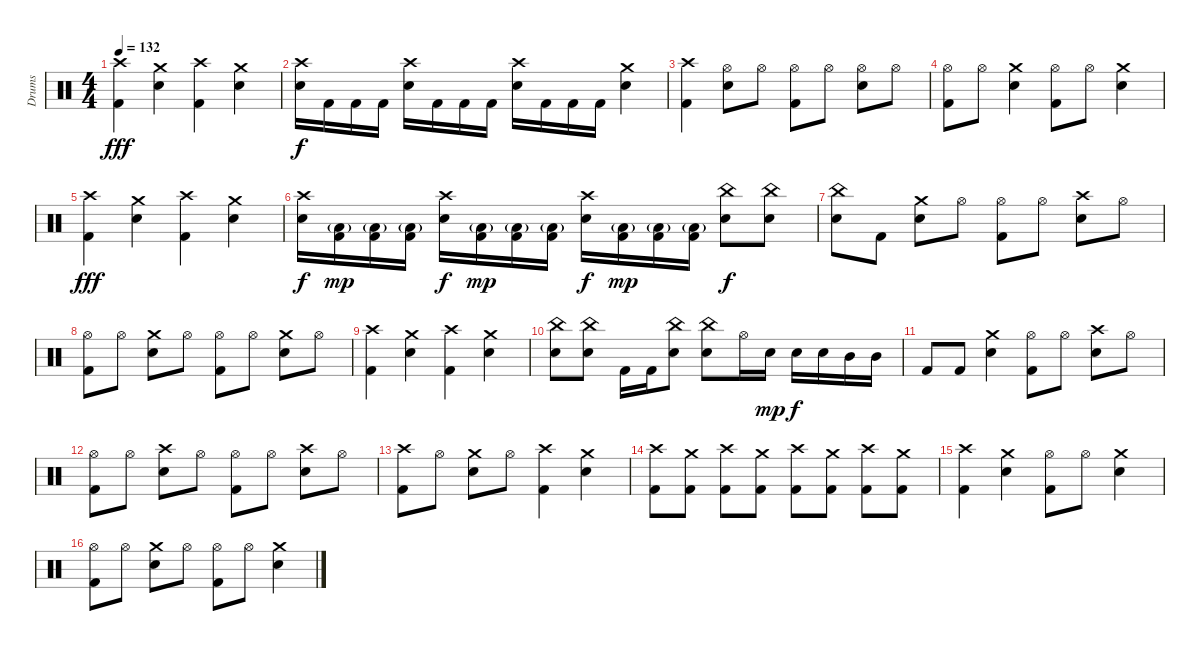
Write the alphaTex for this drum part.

\track ("Drums" "Drums") {instrument percussion}
\staff {score}
\articulation defaults
\ts (4 4)
\tempo 132
\clef neutral
\ks c
("Crash high (hit)" "Kick (hit) 2").4{dy fff} ("Crash medium (hit)" "Snare (hit) 2").4 ("Crash high (hit)" "Kick (hit) 2").4 ("Crash medium (hit)" "Snare (hit) 2").4 |
("Crash high (hit)" "Snare (hit) 2").16{dy f} "Kick (hit) 2".16 "Kick (hit) 2".16 "Kick (hit) 2".16 ("Crash high (hit)" "Snare (hit) 2").16 "Kick (hit) 2".16 "Kick (hit) 2".16 "Kick (hit) 2".16 ("Crash high (hit)" "Snare (hit) 2").16 "Kick (hit) 2".16 "Kick (hit) 2".16 "Kick (hit) 2".16 ("Crash medium (hit)" "Snare (hit) 2").4 |
("Crash high (hit)" "Kick (hit) 2").4 ("Hi-Hat (open)" "Snare (hit) 2").8 "Hi-Hat (open)".8 ("Hi-Hat (open)" "Kick (hit) 2").8 "Hi-Hat (open)".8 ("Hi-Hat (open)" "Snare (hit) 2").8 "Hi-Hat (open)".8 |
("Hi-Hat (open)" "Kick (hit) 2").8 "Hi-Hat (open)".8 ("Crash medium (hit)" "Snare (hit) 2").4 ("Hi-Hat (open)" "Kick (hit) 2").8 "Hi-Hat (open)".8 ("Crash medium (hit)" "Snare (hit) 2").4 |
("Crash high (hit)" "Kick (hit) 2").4{dy fff} ("Crash medium (hit)" "Snare (hit) 2").4 ("Crash high (hit)" "Kick (hit) 2").4 ("Crash medium (hit)" "Snare (hit) 2").4 |
("Crash high (hit)" "Snare (hit) 2").16{dy f} ("Low Floor Tom (hit)"{g} "Kick (hit) 2").16{dy mp} ("Low Floor Tom (hit)"{g} "Kick (hit) 2").16 ("Low Floor Tom (hit)"{g} "Kick (hit) 2").16 ("Crash high (hit)" "Snare (hit) 2").16{dy f} ("Low Floor Tom (hit)"{g} "Kick (hit) 2").16{dy mp} ("Low Floor Tom (hit)"{g} "Kick (hit) 2").16 ("Low Floor Tom (hit)"{g} "Kick (hit) 2").16 ("Crash high (hit)" "Snare (hit) 2").16{dy f} ("Low Floor Tom (hit)"{g} "Kick (hit) 2").16{dy mp} ("Low Floor Tom (hit)"{g} "Kick (hit) 2").16 ("Low Floor Tom (hit)"{g} "Kick (hit) 2").16 ("China (hit)" "Snare (hit) 2").8{dy f} ("China (hit)" "Snare (hit) 2").8 |
("China (hit)" "Snare (hit) 2").8 "Kick (hit) 2".8 ("Crash medium (hit)" "Snare (hit) 2").8 "Hi-Hat (open)".8 ("Hi-Hat (open)" "Kick (hit) 2").8 "Hi-Hat (open)".8 ("Crash high (hit)" "Snare (hit) 2").8 "Hi-Hat (open)".8 |
("Hi-Hat (open)" "Kick (hit) 2").8 "Hi-Hat (open)".8 ("Crash medium (hit)" "Snare (hit) 2").8 "Hi-Hat (open)".8 ("Hi-Hat (open)" "Kick (hit) 2").8 "Hi-Hat (open)".8 ("Crash medium (hit)" "Snare (hit) 2").8 "Hi-Hat (open)".8 |
("Crash high (hit)" "Kick (hit) 2").4 ("Crash medium (hit)" "Snare (hit) 2").4 ("Crash high (hit)" "Kick (hit) 2").4 ("Crash medium (hit)" "Snare (hit) 2").4 |
("China (hit)" "Snare (hit) 2").8 ("China (hit)" "Snare (hit) 2").8 "Kick (hit) 2".16 "Kick (hit) 2".16 ("China (hit)" "Snare (hit) 2").8 ("China (hit)" "Snare (hit) 2").8 "Hi-Hat (open)".16 "Snare (hit) 2".16{dy mp} "Snare (hit) 2".16{dy f} "Snare (hit) 2".16 "Mid Tom (hit)".16 "Mid Tom (hit)".16 |
"Kick (hit) 2".8 "Kick (hit) 2".8 ("Crash medium (hit)" "Snare (hit) 2").4 ("Hi-Hat (open)" "Kick (hit) 2").8 "Hi-Hat (open)".8 ("Crash high (hit)" "Snare (hit) 2").8 "Hi-Hat (open)".8 |
("Hi-Hat (open)" "Kick (hit) 2").8 "Hi-Hat (open)".8 ("Crash high (hit)" "Snare (hit) 2").8 "Hi-Hat (open)".8 ("Hi-Hat (open)" "Kick (hit) 2").8 "Hi-Hat (open)".8 ("Crash high (hit)" "Snare (hit) 2").8 "Hi-Hat (open)".8 |
("Crash high (hit)" "Kick (hit) 2").8 "Hi-Hat (open)".8 ("Crash medium (hit)" "Snare (hit) 2").8 "Hi-Hat (open)".8 ("Crash high (hit)" "Kick (hit) 2").4 ("Crash medium (hit)" "Snare (hit) 2").4 |
("Crash high (hit)" "Kick (hit) 2").8 ("Crash medium (hit)" "Kick (hit) 2").8 ("Crash high (hit)" "Kick (hit) 2").8 ("Crash medium (hit)" "Kick (hit) 2").8 ("Crash high (hit)" "Kick (hit) 2").8 ("Crash medium (hit)" "Kick (hit) 2").8 ("Crash high (hit)" "Kick (hit) 2").8 ("Crash medium (hit)" "Kick (hit) 2").8 |
("Crash high (hit)" "Kick (hit) 2").4 ("Crash medium (hit)" "Snare (hit) 2").4 ("Hi-Hat (open)" "Kick (hit) 2").8 "Hi-Hat (open)".8 ("Crash medium (hit)" "Snare (hit) 2").4 |
("Hi-Hat (open)" "Kick (hit) 2").8 "Hi-Hat (open)".8 ("Crash medium (hit)" "Snare (hit) 2").8 "Hi-Hat (open)".8 ("Hi-Hat (open)" "Kick (hit) 2").8 "Hi-Hat (open)".8 ("Crash medium (hit)" "Snare (hit) 2").4
